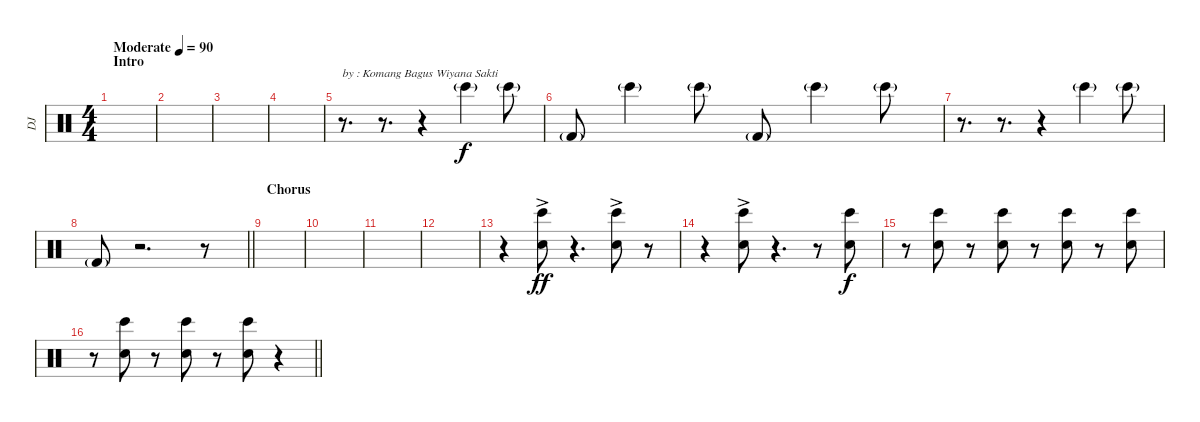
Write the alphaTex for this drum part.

\track ("DJ" "DJ") {instrument percussion}
\staff {score}
\articulation defaults
\ts (4 4)
\section ("" "Intro")
\tempo (90 "Moderate")
\clef neutral
\ks c
|
|
|
|
r.8{d txt "by : Komang Bagus Wiyana Sakti"} r.8{d} r.4 "Bongo High (hit)"{g}.4 "Bongo High (hit)"{g}.8 |
"Kick (hit) 2"{g}.8 "Bongo High (hit)"{g}.4 "Bongo High (hit)"{g}.8 "Kick (hit) 2"{g}.8 "Bongo High (hit)"{g}.4 "Bongo High (hit)"{g}.8 |
r.8{d} r.8{d} r.4 "Bongo High (hit)"{g}.4 "Bongo High (hit)"{g}.8 |
\barLineRight lightlight "Kick (hit) 2"{g}.8
r.2{d} r.8 |
\section ("" "Chorus")
|
|
|
|
r.4 ("Bongo High (hit)"{ac} "Hand Clap (hit)"{ac}).8{dy ff} r.4{d} ("Bongo High (hit)"{ac} "Hand Clap (hit)"{ac}).8 r.8 |
r.4 ("Bongo High (hit)"{ac} "Hand Clap (hit)"{ac}).8 r.4{d} r.8 ("Bongo High (hit)" "Hand Clap (hit)").8{dy f} |
r.8 ("Bongo High (hit)" "Hand Clap (hit)").8 r.8 ("Bongo High (hit)" "Hand Clap (hit)").8 r.8 ("Bongo High (hit)" "Hand Clap (hit)").8 r.8 ("Bongo High (hit)" "Hand Clap (hit)").8 |
\barLineRight lightlight
r.8 ("Bongo High (hit)" "Hand Clap (hit)").8 r.8 ("Bongo High (hit)" "Hand Clap (hit)").8 r.8 ("Bongo High (hit)" "Hand Clap (hit)").8 r.4
